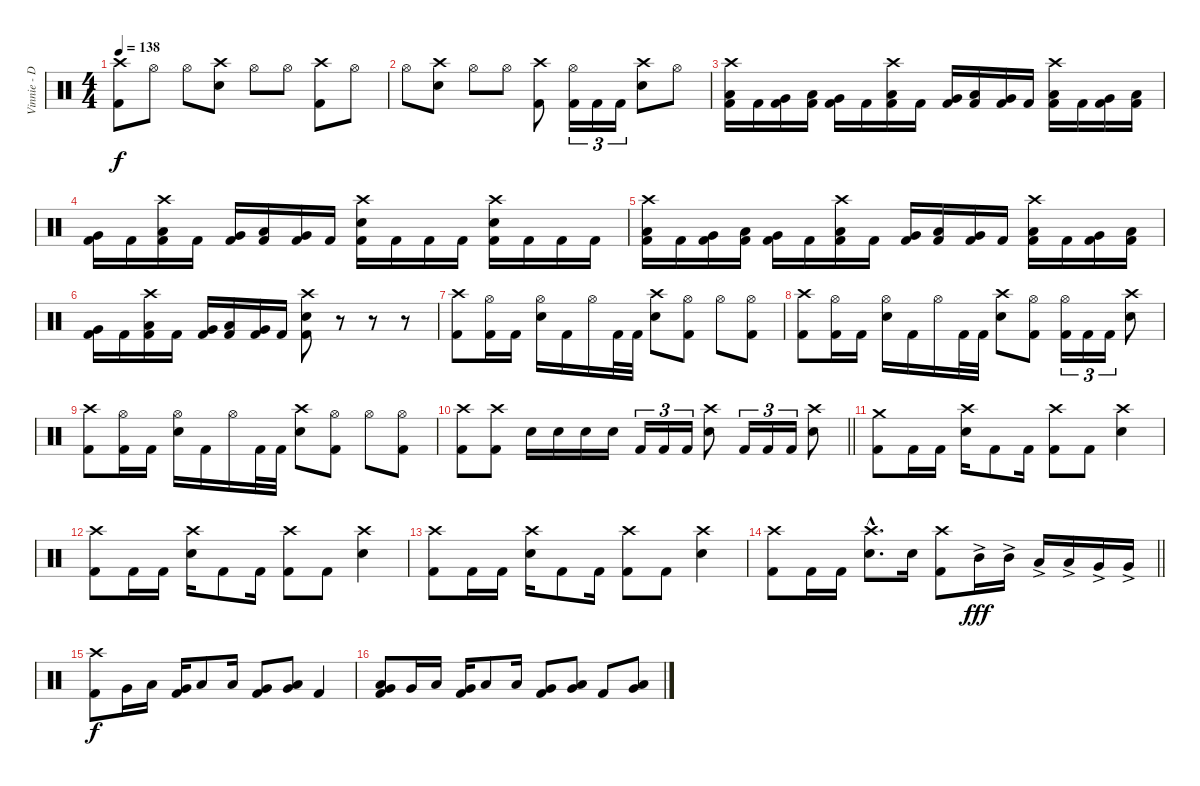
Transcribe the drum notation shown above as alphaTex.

\track ("Vinnie - Drums" "Vinnie - D") {instrument percussion}
\staff {score}
\articulation defaults
\ts (4 4)
\tempo 138
\clef neutral
\ks c
("Crash high (hit)" "Kick (hit) 2").8{dy f} "Hi-Hat (open)".8 "Hi-Hat (open)".8 ("Crash high (hit)" "Snare (hit) 2").8 "Hi-Hat (open)".8 "Hi-Hat (open)".8 ("Crash high (hit)" "Kick (hit) 2").8 "Hi-Hat (open)".8 |
"Hi-Hat (open)".8 ("Crash high (hit)" "Snare (hit) 2").8 "Hi-Hat (open)".8 "Hi-Hat (open)".8 ("Crash high (hit)" "Kick (hit) 2").8 ("Hi-Hat (open)" "Kick (hit) 2").16{tu (3 2)} "Kick (hit) 2".16{tu (3 2)} "Kick (hit) 2".16{tu (3 2)} ("Crash high (hit)" "Snare (hit) 2").8 "Hi-Hat (open)".8 |
("Crash high (hit)" "Low Tom (hit)" "Kick (hit) 2").16 "Kick (hit) 2".16 ("Very Low Tom (hit)" "Kick (hit) 2").16 ("Low Tom (hit)" "Kick (hit) 2").16 ("Very Low Tom (hit)" "Kick (hit) 2").16 "Kick (hit) 2".16 ("Crash high (hit)" "Low Tom (hit)" "Kick (hit) 2").16 "Kick (hit) 2".16 ("Very Low Tom (hit)" "Kick (hit) 2").16 ("Low Tom (hit)" "Kick (hit) 2").16 ("Very Low Tom (hit)" "Kick (hit) 2").16 "Kick (hit) 2".16 ("Crash high (hit)" "Low Tom (hit)" "Kick (hit) 2").16 "Kick (hit) 2".16 ("Very Low Tom (hit)" "Kick (hit) 2").16 ("Low Tom (hit)" "Kick (hit) 2").16 |
("Very Low Tom (hit)" "Kick (hit) 2").16 "Kick (hit) 2".16 ("Crash high (hit)" "Low Tom (hit)" "Kick (hit) 2").16 "Kick (hit) 2".16 ("Very Low Tom (hit)" "Kick (hit) 2").16 ("Low Tom (hit)" "Kick (hit) 2").16 ("Very Low Tom (hit)" "Kick (hit) 2").16 "Kick (hit) 2".16 ("Crash high (hit)" "Snare (hit) 2" "Kick (hit) 2").16 "Kick (hit) 2".16 "Kick (hit) 2".16 "Kick (hit) 2".16 ("Crash high (hit)" "Snare (hit) 2" "Kick (hit) 2").16 "Kick (hit) 2".16 "Kick (hit) 2".16 "Kick (hit) 2".16 |
("Crash high (hit)" "Low Tom (hit)" "Kick (hit) 2").16 "Kick (hit) 2".16 ("Very Low Tom (hit)" "Kick (hit) 2").16 ("Low Tom (hit)" "Kick (hit) 2").16 ("Very Low Tom (hit)" "Kick (hit) 2").16 "Kick (hit) 2".16 ("Crash high (hit)" "Low Tom (hit)" "Kick (hit) 2").16 "Kick (hit) 2".16 ("Very Low Tom (hit)" "Kick (hit) 2").16 ("Low Tom (hit)" "Kick (hit) 2").16 ("Very Low Tom (hit)" "Kick (hit) 2").16 "Kick (hit) 2".16 ("Crash high (hit)" "Low Tom (hit)" "Kick (hit) 2").16 "Kick (hit) 2".16 ("Very Low Tom (hit)" "Kick (hit) 2").16 ("Low Tom (hit)" "Kick (hit) 2").16 |
("Very Low Tom (hit)" "Kick (hit) 2").16 "Kick (hit) 2".16 ("Crash high (hit)" "Low Tom (hit)" "Kick (hit) 2").16 "Kick (hit) 2".16 ("Very Low Tom (hit)" "Kick (hit) 2").16 ("Low Tom (hit)" "Kick (hit) 2").16 ("Very Low Tom (hit)" "Kick (hit) 2").16 "Kick (hit) 2".16 ("Crash high (hit)" "Snare (hit) 2" "Kick (hit) 2").8 r.8{volume 0} r.8 r.8{volume 16} |
("Crash high (hit)" "Kick (hit) 2").8 ("Hi-Hat (open)" "Kick (hit) 2").16 "Kick (hit) 2".16 ("Hi-Hat (open)" "Snare (hit) 2").16 "Kick (hit) 2".16 "Hi-Hat (open)".16 "Kick (hit) 2".32 "Kick (hit) 2".32 ("Crash high (hit)" "Snare (hit) 2").8 ("Hi-Hat (open)" "Kick (hit) 2").8 "Hi-Hat (open)".8 ("Hi-Hat (open)" "Kick (hit) 2").8 |
("Crash high (hit)" "Kick (hit) 2").8 ("Hi-Hat (open)" "Kick (hit) 2").16 "Kick (hit) 2".16 ("Hi-Hat (open)" "Snare (hit) 2").16 "Kick (hit) 2".16 "Hi-Hat (open)".16 "Kick (hit) 2".32 "Kick (hit) 2".32 ("Crash high (hit)" "Snare (hit) 2").8 ("Hi-Hat (open)" "Kick (hit) 2").8 ("Hi-Hat (open)" "Kick (hit) 2").16{tu (3 2)} "Kick (hit) 2".16{tu (3 2)} "Kick (hit) 2".16{tu (3 2)} ("Crash high (hit)" "Snare (hit) 2").8 |
("Crash high (hit)" "Kick (hit) 2").8 ("Hi-Hat (open)" "Kick (hit) 2").16 "Kick (hit) 2".16 ("Hi-Hat (open)" "Snare (hit) 2").16 "Kick (hit) 2".16 "Hi-Hat (open)".16 "Kick (hit) 2".32 "Kick (hit) 2".32 ("Crash high (hit)" "Snare (hit) 2").8 ("Hi-Hat (open)" "Kick (hit) 2").8 "Hi-Hat (open)".8 ("Hi-Hat (open)" "Kick (hit) 2").8 |
\barLineRight lightlight
("Crash high (hit)" "Kick (hit) 2").8 ("Crash high (hit)" "Kick (hit) 2").8 "Snare (hit) 2".16 "Snare (hit) 2".16 "Snare (hit) 2".16 "Snare (hit) 2".16 "Kick (hit) 2".16{tu (3 2)} "Kick (hit) 2".16{tu (3 2)} "Kick (hit) 2".16{tu (3 2)} ("Crash high (hit)" "Snare (hit) 2").8 "Kick (hit) 2".16{tu (3 2)} "Kick (hit) 2".16{tu (3 2)} "Kick (hit) 2".16{tu (3 2)} ("Crash high (hit)" "Snare (hit) 2").8 |
("Crash medium (hit)" "Kick (hit) 2").8 "Kick (hit) 2".16 "Kick (hit) 2".16 ("Crash high (hit)" "Snare (hit) 2").16 "Kick (hit) 2".8 "Kick (hit) 2".16 ("Crash high (hit)" "Kick (hit) 2").8 "Kick (hit) 2".8 ("Crash high (hit)" "Snare (hit) 2").4 |
("Crash high (hit)" "Kick (hit) 2").8 "Kick (hit) 2".16 "Kick (hit) 2".16 ("Crash high (hit)" "Snare (hit) 2").16 "Kick (hit) 2".8 "Kick (hit) 2".16 ("Crash high (hit)" "Kick (hit) 2").8 "Kick (hit) 2".8 ("Crash high (hit)" "Snare (hit) 2").4 |
("Crash high (hit)" "Kick (hit) 2").8 "Kick (hit) 2".16 "Kick (hit) 2".16 ("Crash high (hit)" "Snare (hit) 2").16 "Kick (hit) 2".8 "Kick (hit) 2".16 ("Crash high (hit)" "Kick (hit) 2").8 "Kick (hit) 2".8 ("Crash high (hit)" "Snare (hit) 2").4 |
\barLineRight lightlight
("Crash high (hit)" "Kick (hit) 2").8 "Kick (hit) 2".16 "Kick (hit) 2".16 ("Crash high (hit)"{hac} "Snare (hit) 2"{hac}).8{d} "Snare (hit) 2".16 ("Crash high (hit)" "Kick (hit) 2").8 "Mid Tom (hit)"{ac}.16{dy fff} "Mid Tom (hit)"{ac}.16 "Low Tom (hit)"{ac}.16 "Low Tom (hit)"{ac}.16 "Very Low Tom (hit)"{ac}.16 "Very Low Tom (hit)"{ac}.16 |
("Crash high (hit)" "Kick (hit) 2").8{dy f} "Very Low Tom (hit)".16 "Low Tom (hit)".16 ("Very Low Tom (hit)" "Kick (hit) 2").16 "Low Tom (hit)".8 "Low Tom (hit)".16 ("Very Low Tom (hit)" "Kick (hit) 2").8 ("Low Tom (hit)" "Very Low Tom (hit)").8 "Kick (hit) 2".4 |
("Low Tom (hit)" "Very Low Tom (hit)" "Kick (hit) 2").8 "Very Low Tom (hit)".16 "Low Tom (hit)".16 ("Very Low Tom (hit)" "Kick (hit) 2").16 "Low Tom (hit)".8 "Low Tom (hit)".16 ("Very Low Tom (hit)" "Kick (hit) 2").8 ("Low Tom (hit)" "Very Low Tom (hit)").8 "Kick (hit) 2".8 ("Low Tom (hit)" "Very Low Tom (hit)").8
